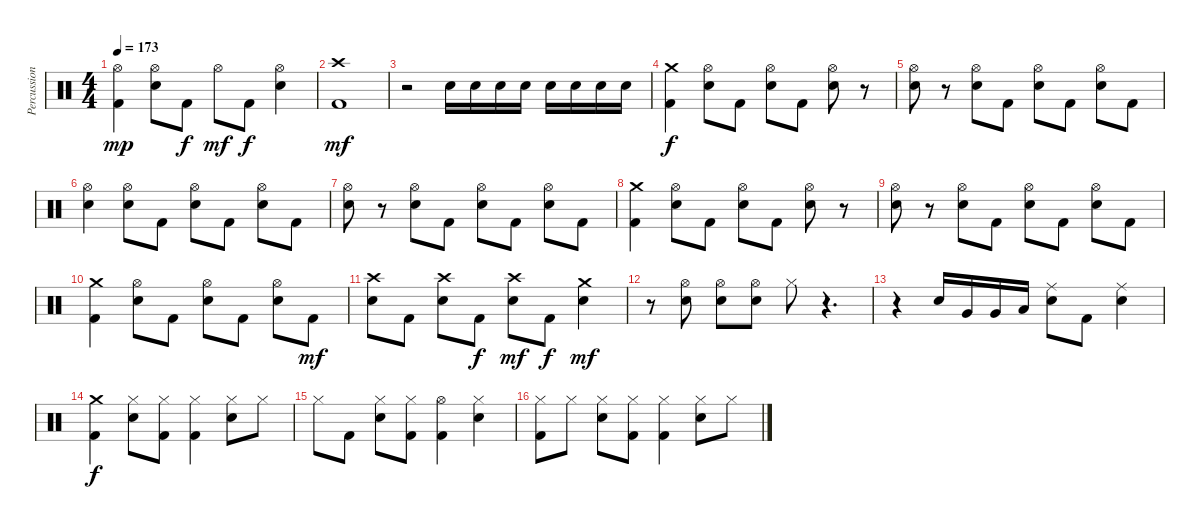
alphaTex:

\track ("Percussion" "Percussion") {instrument percussion}
\staff {score}
\articulation defaults
\ts (4 4)
\tempo 173
\clef neutral
\ks c
("Hi-Hat (open)" "Kick (hit) 2").4{dy mp} ("Hi-Hat (open)" "Electric Snare (hit)").8 "Kick (hit) 2".8{dy f} "Hi-Hat (open)".8{dy mf} "Kick (hit) 2".8{dy f} ("Hi-Hat (open)" "Electric Snare (hit)").4 |
("Crash high (hit)" "Kick (hit) 2").1{dy mf} |
r.2 "Electric Snare (hit)".16 "Electric Snare (hit)".16 "Electric Snare (hit)".16 "Electric Snare (hit)".16 "Electric Snare (hit)".16 "Electric Snare (hit)".16 "Electric Snare (hit)".16 "Electric Snare (hit)".16 |
("Crash medium (hit)" "Kick (hit) 2").4{dy f} ("Hi-Hat (open)" "Electric Snare (hit)").8 "Kick (hit) 2".8 ("Hi-Hat (open)" "Electric Snare (hit)").8 "Kick (hit) 2".8 ("Hi-Hat (open)" "Electric Snare (hit)").8 r.8 |
("Hi-Hat (open)" "Electric Snare (hit)").8 r.8 ("Hi-Hat (open)" "Electric Snare (hit)").8 "Kick (hit) 2".8 ("Hi-Hat (open)" "Electric Snare (hit)").8 "Kick (hit) 2".8 ("Hi-Hat (open)" "Electric Snare (hit)").8 "Kick (hit) 2".8 |
("Hi-Hat (open)" "Electric Snare (hit)").4 ("Hi-Hat (open)" "Electric Snare (hit)").8 "Kick (hit) 2".8 ("Hi-Hat (open)" "Electric Snare (hit)").8 "Kick (hit) 2".8 ("Hi-Hat (open)" "Electric Snare (hit)").8 "Kick (hit) 2".8 |
("Hi-Hat (open)" "Electric Snare (hit)").8 r.8 ("Hi-Hat (open)" "Electric Snare (hit)").8 "Kick (hit) 2".8 ("Hi-Hat (open)" "Electric Snare (hit)").8 "Kick (hit) 2".8 ("Hi-Hat (open)" "Electric Snare (hit)").8 "Kick (hit) 2".8 |
("Crash medium (hit)" "Kick (hit) 2").4 ("Hi-Hat (open)" "Electric Snare (hit)").8 "Kick (hit) 2".8 ("Hi-Hat (open)" "Electric Snare (hit)").8 "Kick (hit) 2".8 ("Hi-Hat (open)" "Electric Snare (hit)").8 r.8 |
("Hi-Hat (open)" "Electric Snare (hit)").8 r.8 ("Hi-Hat (open)" "Electric Snare (hit)").8 "Kick (hit) 2".8 ("Hi-Hat (open)" "Electric Snare (hit)").8 "Kick (hit) 2".8 ("Hi-Hat (open)" "Electric Snare (hit)").8 "Kick (hit) 2".8 |
("Crash medium (hit)" "Kick (hit) 2").4 ("Hi-Hat (open)" "Electric Snare (hit)").8 "Kick (hit) 2".8 ("Hi-Hat (open)" "Electric Snare (hit)").8 "Kick (hit) 2".8 ("Hi-Hat (open)" "Electric Snare (hit)").8 "Kick (hit) 2".8{dy mf} |
("Crash high (hit)" "Electric Snare (hit)").8 "Kick (hit) 2".8 ("Crash high (hit)" "Electric Snare (hit)").8 "Kick (hit) 2".8{dy f} ("Crash high (hit)" "Electric Snare (hit)").8{dy mf} "Kick (hit) 2".8{dy f} ("Crash medium (hit)" "Electric Snare (hit)").4{dy mf} |
r.8 ("Hi-Hat (open)" "Electric Snare (hit)").8 ("Hi-Hat (open)" "Electric Snare (hit)").8 ("Hi-Hat (open)" "Electric Snare (hit)").8 "Hi-Hat (closed)".8 r.4{d} |
r.4 "Electric Snare (hit)".16 "Very Low Tom (hit)".16 "Very Low Tom (hit)".16 "Low Floor Tom (hit)".16 ("Ride (middle)" "Electric Snare (hit)").8 "Kick (hit) 2".8 ("Ride (middle)" "Electric Snare (hit)").4 |
("Crash medium (hit)" "Kick (hit) 2").4{dy f} ("Hi-Hat (closed)" "Electric Snare (hit)").8 ("Hi-Hat (closed)" "Kick (hit) 2").8 ("Hi-Hat (closed)" "Kick (hit) 2").4 ("Hi-Hat (closed)" "Electric Snare (hit)").8 "Hi-Hat (closed)".8 |
"Hi-Hat (closed)".8 "Kick (hit) 2".8 ("Hi-Hat (closed)" "Electric Snare (hit)").8 ("Hi-Hat (closed)" "Kick (hit) 2").8 ("Hi-Hat (open)" "Kick (hit) 2").4 ("Hi-Hat (closed)" "Electric Snare (hit)").4 |
("Hi-Hat (closed)" "Kick (hit) 2").8 "Hi-Hat (closed)".8 ("Hi-Hat (closed)" "Electric Snare (hit)").8 ("Hi-Hat (closed)" "Kick (hit) 2").8 ("Hi-Hat (closed)" "Kick (hit) 2").4 ("Hi-Hat (closed)" "Electric Snare (hit)").8 "Hi-Hat (closed)".8
